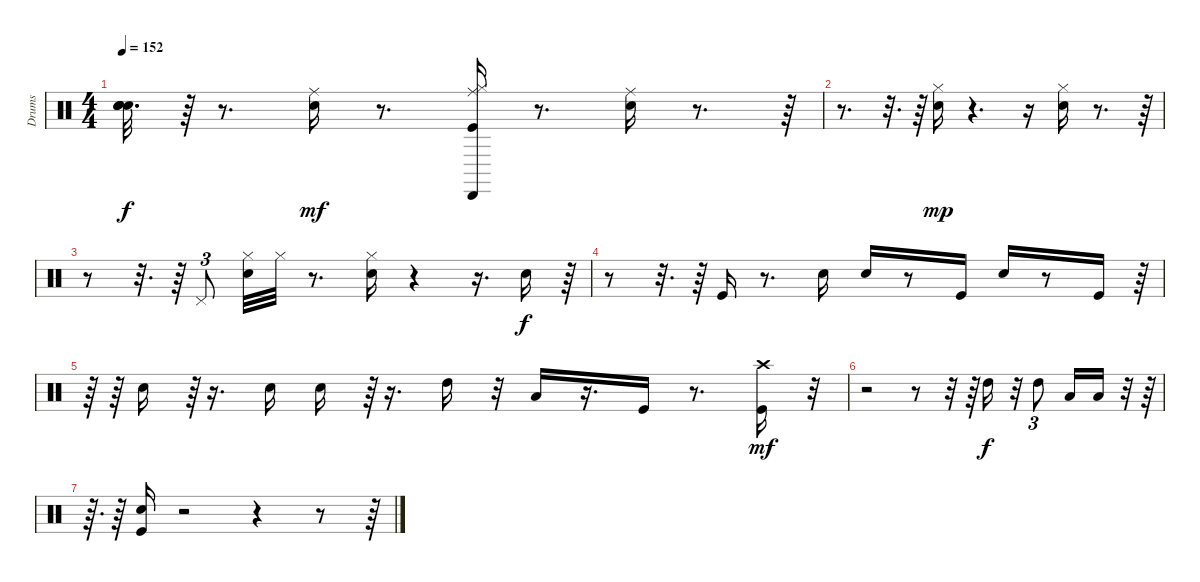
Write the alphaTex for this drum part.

\track ("Drums" "Drums") {instrument percussion}
\staff {score}
\articulation defaults
\ts (4 4)
\tempo 152
\clef neutral
\ks c
("Snare (hit)"{t} "Snare (hit)"{t} "Snare (hit)"{t} "Snare (hit)"{t}).32{d dy f} r.64 r.8{d} ("Snare (hit) 2" "Ride (middle)").16{dy mf} r.8{d} ("Kick (hit)" "Hi-Hat (closed)" "Ride (middle)" "Cabasa (hit)").16 r.8{d} ("Snare (hit) 2" "Ride (middle)").16 r.8{d} r.64 |
r.8{d} r.32{d} r.64 ("Snare (hit) 2" "Hi-Hat (closed)").16{dy mp} r.4{d} r.16 ("Snare (hit) 2" "Hi-Hat (closed)").16 r.8{d} r.64 |
r.8 r.32{d} r.64 "Pedal Hi-Hat (hit)".8{tu (3 2)} ("Snare (hit) 2" "Hi-Hat (closed)").32 "Hi-Hat (closed)".32 r.8{d} ("Hi-Hat (closed)" "Snare (hit) 2").16 r.4 r.16{d} "Snare (hit) 2".16{dy f} r.64 |
r.8 r.32{d} r.64 "Kick (hit)".16 r.8{d} "Snare (hit) 2".16 "Snare (hit) 2".16 r.8 "Kick (hit)".16 "Snare (hit) 2".16 r.8 "Kick (hit)".16 r.64 |
r.64 r.64 "Snare (hit) 2".16 r.64{tu (3 2)} r.16{d} "Snare (hit) 2".16 "Snare (hit) 2".16 r.64{tu (3 2)} r.16{d} "High Tom (hit)".16 r.32 "Low Floor Tom (hit)".16 r.16{d} "Kick (hit)".16 r.8{d} ("Kick (hit)" "Crash high (hit)").16{dy mf} r.32{tu (5 4)} |
r.2 r.8 r.32 r.64 "High Tom (hit)".16{dy f} r.32 "High Tom (hit)".8{tu (3 2)} "Low Tom (hit)".16 "Low Floor Tom (hit)".16 r.32 r.64 |
r.64{d} r.64 ("Kick (hit)" "Snare (hit) 2").16 r.2 r.4 r.8 r.64
